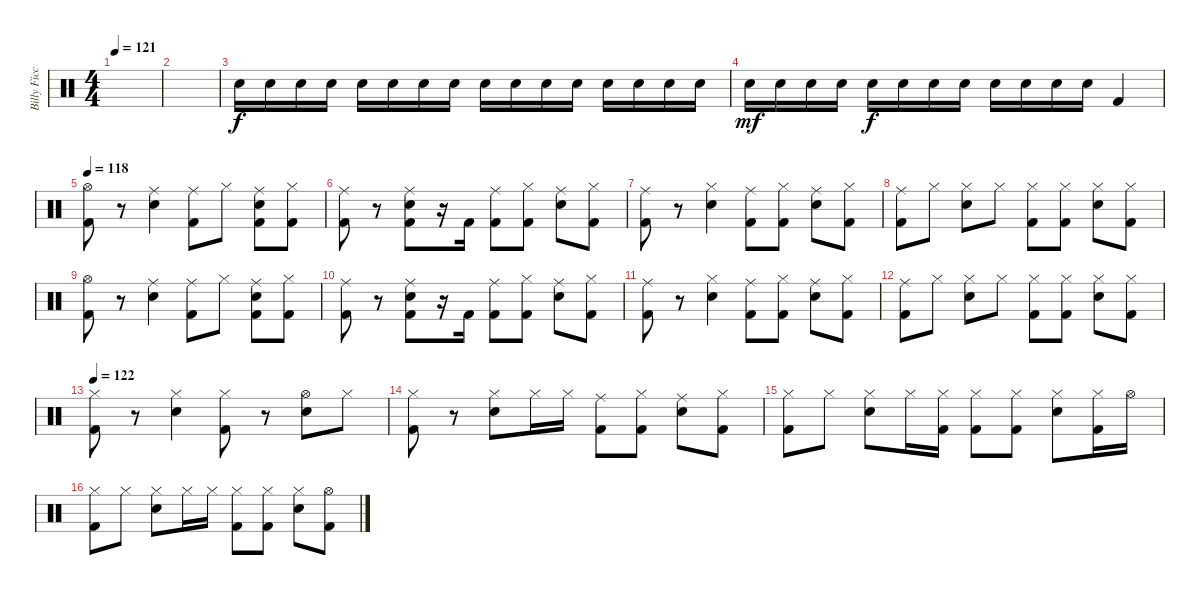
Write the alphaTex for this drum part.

\track ("Billy Ficca" "Billy Ficc") {instrument percussion}
\staff {score}
\articulation defaults
\ts (4 4)
\tempo 121
\clef neutral
\ks c
|
|
"Snare (hit) 2".16 "Snare (hit) 2".16 "Snare (hit) 2".16 "Snare (hit) 2".16 "Snare (hit) 2".16 "Snare (hit) 2".16 "Snare (hit) 2".16 "Snare (hit) 2".16 "Snare (hit) 2".16 "Snare (hit) 2".16 "Snare (hit) 2".16 "Snare (hit) 2".16 "Snare (hit) 2".16 "Snare (hit) 2".16 "Snare (hit) 2".16 "Snare (hit) 2".16 |
"Snare (hit) 2".16{dy mf} "Snare (hit) 2".16 "Snare (hit) 2".16 "Snare (hit) 2".16 "Snare (hit) 2".16{dy f} "Snare (hit) 2".16 "Snare (hit) 2".16 "Snare (hit) 2".16 "Snare (hit) 2".16 "Snare (hit) 2".16 "Snare (hit) 2".16 "Snare (hit) 2".16 "Kick (hit) 2".4 |
\tempo 118
("Hi-Hat (open)" "Kick (hit) 2").8 r.8 ("Ride (middle)" "Snare (hit) 2").4 ("Ride (middle)" "Kick (hit) 2").8 "Hi-Hat (closed)".8 ("Ride (middle)" "Snare (hit) 2" "Kick (hit) 2").8 ("Hi-Hat (closed)" "Kick (hit) 2").8 |
("Ride (middle)" "Kick (hit) 2").8 r.8 ("Ride (middle)" "Snare (hit) 2" "Kick (hit) 2").8 r.16 "Kick (hit) 2".16 ("Ride (middle)" "Kick (hit) 2").8 ("Hi-Hat (closed)" "Kick (hit) 2").8 ("Ride (middle)" "Snare (hit) 2").8 ("Hi-Hat (closed)" "Kick (hit) 2").8 |
("Ride (middle)" "Kick (hit) 2").8 r.8 ("Hi-Hat (closed)" "Snare (hit) 2").4 ("Ride (middle)" "Kick (hit) 2").8 ("Hi-Hat (closed)" "Kick (hit) 2").8 ("Ride (middle)" "Snare (hit) 2").8 ("Hi-Hat (closed)" "Kick (hit) 2").8 |
("Ride (middle)" "Kick (hit) 2").8 "Hi-Hat (closed)".8 ("Hi-Hat (closed)" "Snare (hit) 2").8 "Hi-Hat (closed)".8 ("Hi-Hat (closed)" "Kick (hit) 2").8 ("Hi-Hat (closed)" "Kick (hit) 2").8 ("Hi-Hat (closed)" "Snare (hit) 2").8 ("Hi-Hat (closed)" "Kick (hit) 2").8 |
("Hi-Hat (open)" "Kick (hit) 2").8 r.8 ("Ride (middle)" "Snare (hit) 2").4 ("Ride (middle)" "Kick (hit) 2").8 "Hi-Hat (closed)".8 ("Ride (middle)" "Snare (hit) 2" "Kick (hit) 2").8 ("Hi-Hat (closed)" "Kick (hit) 2").8 |
("Ride (middle)" "Kick (hit) 2").8 r.8 ("Ride (middle)" "Snare (hit) 2" "Kick (hit) 2").8 r.16 "Kick (hit) 2".16 ("Ride (middle)" "Kick (hit) 2").8 ("Hi-Hat (closed)" "Kick (hit) 2").8 ("Ride (middle)" "Snare (hit) 2").8 ("Hi-Hat (closed)" "Kick (hit) 2").8 |
("Ride (middle)" "Kick (hit) 2").8 r.8 ("Hi-Hat (closed)" "Snare (hit) 2").4 ("Ride (middle)" "Kick (hit) 2").8 ("Hi-Hat (closed)" "Kick (hit) 2").8 ("Ride (middle)" "Snare (hit) 2").8 ("Hi-Hat (closed)" "Kick (hit) 2").8 |
("Ride (middle)" "Kick (hit) 2").8 "Hi-Hat (closed)".8 ("Hi-Hat (closed)" "Snare (hit) 2").8 "Hi-Hat (closed)".8 ("Hi-Hat (closed)" "Kick (hit) 2").8 ("Hi-Hat (closed)" "Kick (hit) 2").8 ("Hi-Hat (closed)" "Snare (hit) 2").8 ("Hi-Hat (closed)" "Kick (hit) 2").8 |
\tempo 122
("Hi-Hat (closed)" "Kick (hit) 2").8 r.8 ("Hi-Hat (closed)" "Snare (hit) 2").4 ("Hi-Hat (closed)" "Kick (hit) 2").8 r.8 ("Hi-Hat (open)" "Snare (hit) 2").8 "Hi-Hat (closed)".8 |
("Hi-Hat (closed)" "Kick (hit) 2").8 r.8 ("Hi-Hat (closed)" "Snare (hit) 2").8 "Hi-Hat (closed)".16 "Hi-Hat (closed)".16 ("Ride (middle)" "Kick (hit) 2").8 ("Hi-Hat (closed)" "Kick (hit) 2").8 ("Ride (middle)" "Snare (hit) 2").8 ("Hi-Hat (closed)" "Kick (hit) 2").8 |
("Hi-Hat (closed)" "Kick (hit) 2").8 "Hi-Hat (closed)".8 ("Hi-Hat (closed)" "Snare (hit) 2").8 "Hi-Hat (closed)".16 ("Hi-Hat (closed)" "Kick (hit) 2").16 ("Hi-Hat (closed)" "Kick (hit) 2").8 ("Hi-Hat (closed)" "Kick (hit) 2").8 ("Hi-Hat (closed)" "Snare (hit) 2").8 ("Hi-Hat (closed)" "Kick (hit) 2").16 "Hi-Hat (open)".16 |
("Hi-Hat (closed)" "Kick (hit) 2").8 "Hi-Hat (closed)".8 ("Hi-Hat (closed)" "Snare (hit) 2").8 "Hi-Hat (closed)".16 "Hi-Hat (closed)".16 ("Hi-Hat (closed)" "Kick (hit) 2").8 ("Hi-Hat (closed)" "Kick (hit) 2").8 ("Hi-Hat (closed)" "Snare (hit) 2").8 ("Hi-Hat (open)" "Kick (hit) 2").8
